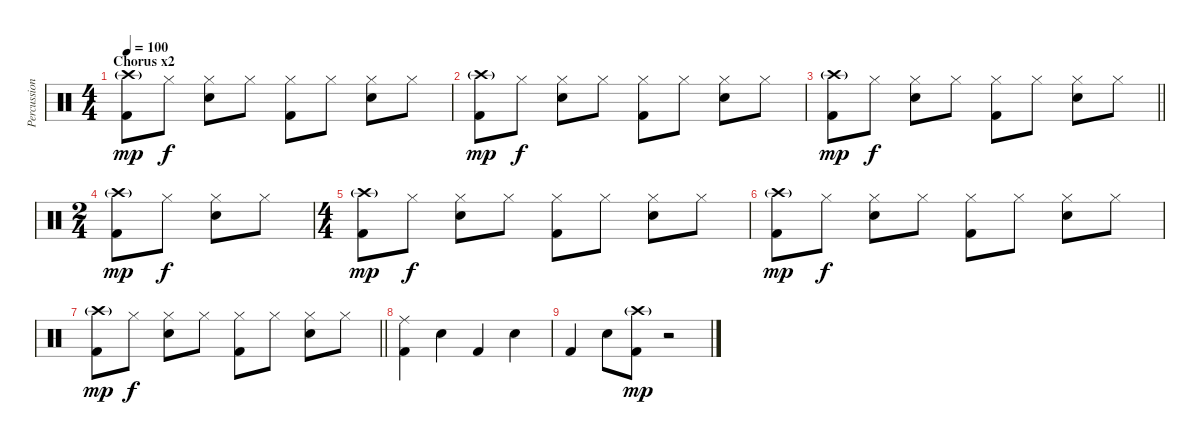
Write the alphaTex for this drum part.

\track ("Percussion" "Percussion") {instrument percussion}
\staff {score}
\articulation defaults
\ts (4 4)
\section ("" "Chorus x2")
\tempo 100
\clef neutral
\ks c
("Crash high (hit)"{g} "Kick (hit) 2").8{dy mp} "Hi-Hat (closed)".8{dy f} ("Hi-Hat (closed)" "Snare (hit) 2").8 "Hi-Hat (closed)".8 ("Hi-Hat (closed)" "Kick (hit) 2").8 "Hi-Hat (closed)".8 ("Hi-Hat (closed)" "Snare (hit) 2").8 "Hi-Hat (closed)".8 |
("Crash high (hit)"{g} "Kick (hit) 2").8{dy mp} "Hi-Hat (closed)".8{dy f} ("Hi-Hat (closed)" "Snare (hit) 2").8 "Hi-Hat (closed)".8 ("Hi-Hat (closed)" "Kick (hit) 2").8 "Hi-Hat (closed)".8 ("Hi-Hat (closed)" "Snare (hit) 2").8 "Hi-Hat (closed)".8 |
\barLineRight lightlight
("Crash high (hit)"{g} "Kick (hit) 2").8{dy mp} "Hi-Hat (closed)".8{dy f} ("Hi-Hat (closed)" "Snare (hit) 2").8 "Hi-Hat (closed)".8 ("Hi-Hat (closed)" "Kick (hit) 2").8 "Hi-Hat (closed)".8 ("Hi-Hat (closed)" "Snare (hit) 2").8 "Hi-Hat (closed)".8 |
\ts (2 4)
("Crash high (hit)"{g} "Kick (hit) 2").8{dy mp} "Hi-Hat (closed)".8{dy f} ("Hi-Hat (closed)" "Snare (hit) 2").8 "Hi-Hat (closed)".8 |
\ts (4 4)
("Crash high (hit)"{g} "Kick (hit) 2").8{dy mp} "Hi-Hat (closed)".8{dy f} ("Hi-Hat (closed)" "Snare (hit) 2").8 "Hi-Hat (closed)".8 ("Hi-Hat (closed)" "Kick (hit) 2").8 "Hi-Hat (closed)".8 ("Hi-Hat (closed)" "Snare (hit) 2").8 "Hi-Hat (closed)".8 |
("Crash high (hit)"{g} "Kick (hit) 2").8{dy mp} "Hi-Hat (closed)".8{dy f} ("Hi-Hat (closed)" "Snare (hit) 2").8 "Hi-Hat (closed)".8 ("Hi-Hat (closed)" "Kick (hit) 2").8 "Hi-Hat (closed)".8 ("Hi-Hat (closed)" "Snare (hit) 2").8 "Hi-Hat (closed)".8 |
\barLineRight lightlight
("Crash high (hit)"{g} "Kick (hit) 2").8{dy mp} "Hi-Hat (closed)".8{dy f} ("Hi-Hat (closed)" "Snare (hit) 2").8 "Hi-Hat (closed)".8 ("Hi-Hat (closed)" "Kick (hit) 2").8 "Hi-Hat (closed)".8 ("Hi-Hat (closed)" "Snare (hit) 2").8 "Hi-Hat (closed)".8 |
("Ride (middle)" "Kick (hit) 2").4 "Snare (hit) 2".4 "Kick (hit) 2".4 "Snare (hit) 2".4 |
"Kick (hit) 2".4 "Snare (hit) 2".8 ("Crash high (hit)"{g} "Kick (hit) 2").8{dy mp} r.2
